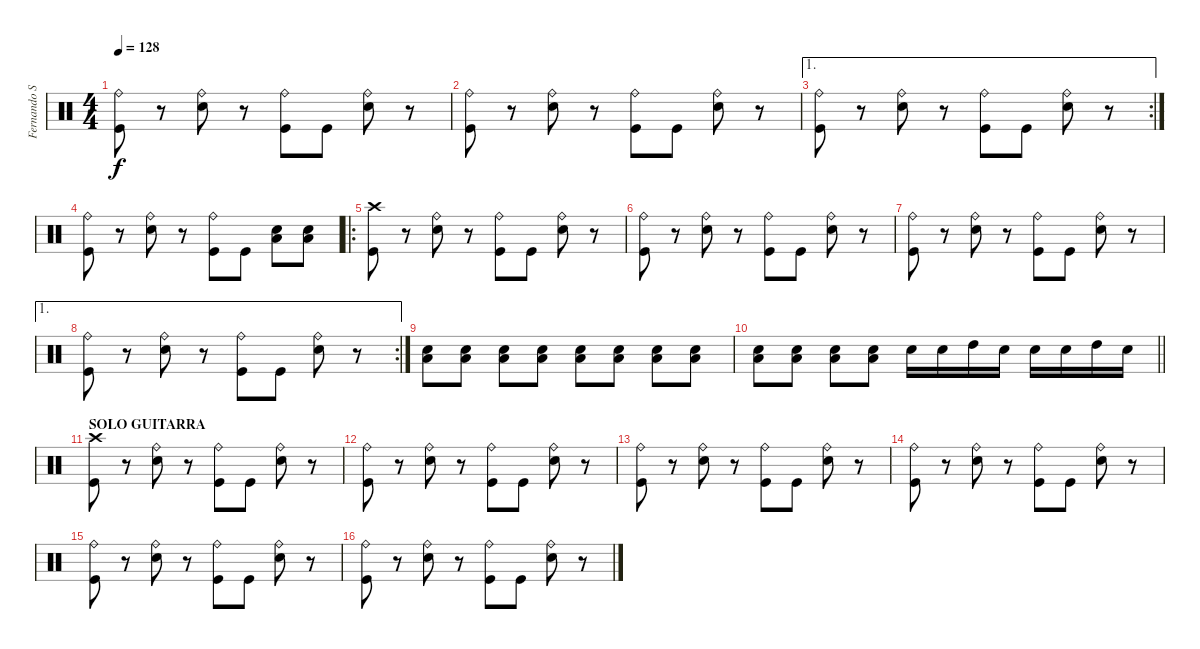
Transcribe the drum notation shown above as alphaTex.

\track ("Fernando Scarcella" "Fernando S") {instrument percussion}
\staff {score}
\articulation defaults
\ts (4 4)
\tempo 128
\clef neutral
\ks c
("Kick (hit)" "Ride (bell)").8{dy f} r.8 ("Snare (hit) 2" "Ride (bell)").8 r.8 ("Kick (hit)" "Ride (bell)").8 "Kick (hit)".8 ("Snare (hit) 2" "Ride (bell)").8 r.8 |
("Kick (hit)" "Ride (bell)").8 r.8 ("Snare (hit) 2" "Ride (bell)").8 r.8 ("Kick (hit)" "Ride (bell)").8 "Kick (hit)".8 ("Snare (hit) 2" "Ride (bell)").8 r.8 |
\ae 1
\rc 2
("Kick (hit)" "Ride (bell)").8 r.8 ("Snare (hit) 2" "Ride (bell)").8 r.8 ("Kick (hit)" "Ride (bell)").8 "Kick (hit)".8 ("Snare (hit) 2" "Ride (bell)").8 r.8 |
("Kick (hit)" "Ride (bell)").8 r.8 ("Snare (hit) 2" "Ride (bell)").8 r.8 ("Kick (hit)" "Ride (bell)").8 "Kick (hit)".8 ("Low Floor Tom (hit)" "Snare (hit) 2").8 ("Low Floor Tom (hit)" "Snare (hit) 2").8 |
\ro
("Kick (hit)" "Crash high (hit)").8 r.8 ("Snare (hit) 2" "Ride (bell)").8 r.8 ("Kick (hit)" "Ride (bell)").8 "Kick (hit)".8 ("Snare (hit) 2" "Ride (bell)").8 r.8 |
("Kick (hit)" "Ride (bell)").8 r.8 ("Snare (hit) 2" "Ride (bell)").8 r.8 ("Kick (hit)" "Ride (bell)").8 "Kick (hit)".8 ("Snare (hit) 2" "Ride (bell)").8 r.8 |
("Kick (hit)" "Ride (bell)").8 r.8 ("Snare (hit) 2" "Ride (bell)").8 r.8 ("Kick (hit)" "Ride (bell)").8 "Kick (hit)".8 ("Snare (hit) 2" "Ride (bell)").8 r.8 |
\ae 1
\rc 2
("Kick (hit)" "Ride (bell)").8 r.8 ("Snare (hit) 2" "Ride (bell)").8 r.8 ("Kick (hit)" "Ride (bell)").8 "Kick (hit)".8 ("Snare (hit) 2" "Ride (bell)").8 r.8 |
("Low Floor Tom (hit)" "Snare (hit) 2").8 ("Low Floor Tom (hit)" "Snare (hit) 2").8 ("Low Floor Tom (hit)" "Snare (hit) 2").8 ("Low Floor Tom (hit)" "Snare (hit) 2").8 ("Low Floor Tom (hit)" "Snare (hit) 2").8 ("Low Floor Tom (hit)" "Snare (hit) 2").8 ("Low Floor Tom (hit)" "Snare (hit) 2").8 ("Low Floor Tom (hit)" "Snare (hit) 2").8 |
\barLineRight lightlight
("Low Floor Tom (hit)" "Snare (hit) 2").8 ("Low Floor Tom (hit)" "Snare (hit) 2").8 ("Low Floor Tom (hit)" "Snare (hit) 2").8 ("Low Floor Tom (hit)" "Snare (hit) 2").8 "Snare (hit) 2".16 "Snare (hit) 2".16 "High Tom (hit)".16 "Snare (hit) 2".16 "Snare (hit) 2".16 "Snare (hit) 2".16 "High Tom (hit)".16 "Snare (hit) 2".16 |
\section ("" "SOLO GUITARRA")
("Kick (hit)" "Crash high (hit)").8 r.8 ("Snare (hit) 2" "Ride (bell)").8 r.8 ("Kick (hit)" "Ride (bell)").8 "Kick (hit)".8 ("Snare (hit) 2" "Ride (bell)").8 r.8 |
("Kick (hit)" "Ride (bell)").8 r.8 ("Snare (hit) 2" "Ride (bell)").8 r.8 ("Kick (hit)" "Ride (bell)").8 "Kick (hit)".8 ("Snare (hit) 2" "Ride (bell)").8 r.8 |
("Kick (hit)" "Ride (bell)").8 r.8 ("Snare (hit) 2" "Ride (bell)").8 r.8 ("Kick (hit)" "Ride (bell)").8 "Kick (hit)".8 ("Snare (hit) 2" "Ride (bell)").8 r.8 |
("Kick (hit)" "Ride (bell)").8 r.8 ("Snare (hit) 2" "Ride (bell)").8 r.8 ("Kick (hit)" "Ride (bell)").8 "Kick (hit)".8 ("Snare (hit) 2" "Ride (bell)").8 r.8 |
("Kick (hit)" "Ride (bell)").8 r.8 ("Snare (hit) 2" "Ride (bell)").8 r.8 ("Kick (hit)" "Ride (bell)").8 "Kick (hit)".8 ("Snare (hit) 2" "Ride (bell)").8 r.8 |
("Kick (hit)" "Ride (bell)").8 r.8 ("Snare (hit) 2" "Ride (bell)").8 r.8 ("Kick (hit)" "Ride (bell)").8 "Kick (hit)".8 ("Snare (hit) 2" "Ride (bell)").8 r.8
